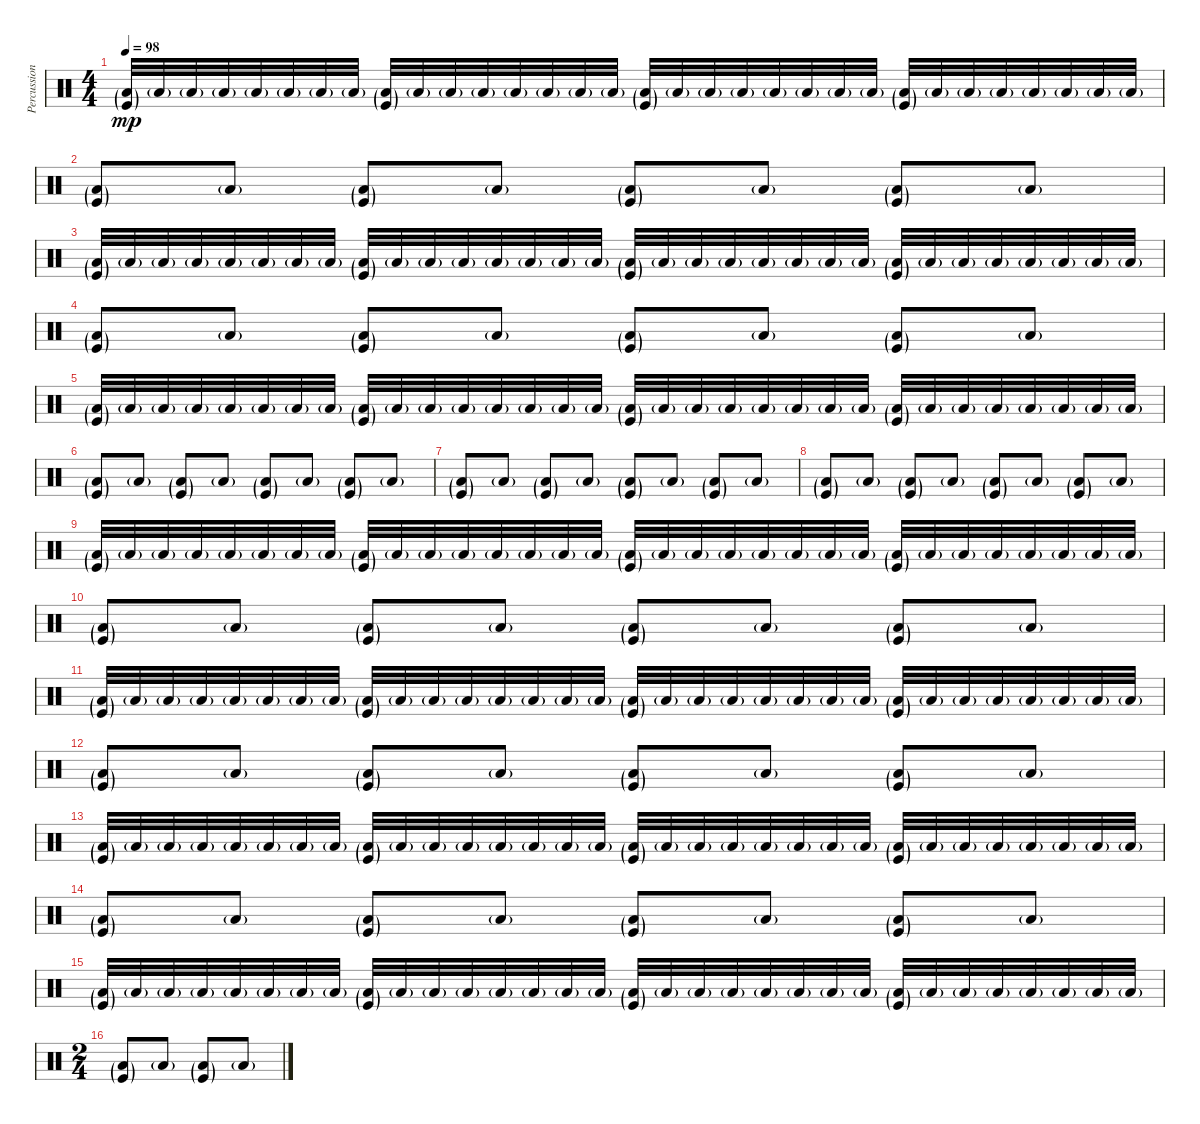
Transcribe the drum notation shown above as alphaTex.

\track ("Percussions" "Percussion") {instrument percussion}
\staff {score}
\articulation defaults
\ts (4 4)
\tempo 98
\clef neutral
\ks c
("Low Floor Tom (hit)"{g} "Kick (hit)"{g}).32{dy mp} "Low Floor Tom (hit)"{g}.32 "Low Floor Tom (hit)"{g}.32 "Low Floor Tom (hit)"{g}.32 "Low Floor Tom (hit)"{g}.32 "Low Floor Tom (hit)"{g}.32 "Low Floor Tom (hit)"{g}.32 "Low Floor Tom (hit)"{g}.32 ("Low Floor Tom (hit)"{g} "Kick (hit)"{g}).32 "Low Floor Tom (hit)"{g}.32 "Low Floor Tom (hit)"{g}.32 "Low Floor Tom (hit)"{g}.32 "Low Floor Tom (hit)"{g}.32 "Low Floor Tom (hit)"{g}.32 "Low Floor Tom (hit)"{g}.32 "Low Floor Tom (hit)"{g}.32 ("Low Floor Tom (hit)"{g} "Kick (hit)"{g}).32 "Low Floor Tom (hit)"{g}.32 "Low Floor Tom (hit)"{g}.32 "Low Floor Tom (hit)"{g}.32 "Low Floor Tom (hit)"{g}.32 "Low Floor Tom (hit)"{g}.32 "Low Floor Tom (hit)"{g}.32 "Low Floor Tom (hit)"{g}.32 ("Low Floor Tom (hit)"{g} "Kick (hit)"{g}).32 "Low Floor Tom (hit)"{g}.32 "Low Floor Tom (hit)"{g}.32 "Low Floor Tom (hit)"{g}.32 "Low Floor Tom (hit)"{g}.32 "Low Floor Tom (hit)"{g}.32 "Low Floor Tom (hit)"{g}.32 "Low Floor Tom (hit)"{g}.32 |
("Low Floor Tom (hit)"{g} "Kick (hit)"{g}).8 "Low Floor Tom (hit)"{g}.8 ("Low Floor Tom (hit)"{g} "Kick (hit)"{g}).8 "Low Floor Tom (hit)"{g}.8 ("Low Floor Tom (hit)"{g} "Kick (hit)"{g}).8 "Low Floor Tom (hit)"{g}.8 ("Low Floor Tom (hit)"{g} "Kick (hit)"{g}).8 "Low Floor Tom (hit)"{g}.8 |
("Low Floor Tom (hit)"{g} "Kick (hit)"{g}).32 "Low Floor Tom (hit)"{g}.32 "Low Floor Tom (hit)"{g}.32 "Low Floor Tom (hit)"{g}.32 "Low Floor Tom (hit)"{g}.32 "Low Floor Tom (hit)"{g}.32 "Low Floor Tom (hit)"{g}.32 "Low Floor Tom (hit)"{g}.32 ("Low Floor Tom (hit)"{g} "Kick (hit)"{g}).32 "Low Floor Tom (hit)"{g}.32 "Low Floor Tom (hit)"{g}.32 "Low Floor Tom (hit)"{g}.32 "Low Floor Tom (hit)"{g}.32 "Low Floor Tom (hit)"{g}.32 "Low Floor Tom (hit)"{g}.32 "Low Floor Tom (hit)"{g}.32 ("Low Floor Tom (hit)"{g} "Kick (hit)"{g}).32 "Low Floor Tom (hit)"{g}.32 "Low Floor Tom (hit)"{g}.32 "Low Floor Tom (hit)"{g}.32 "Low Floor Tom (hit)"{g}.32 "Low Floor Tom (hit)"{g}.32 "Low Floor Tom (hit)"{g}.32 "Low Floor Tom (hit)"{g}.32 ("Low Floor Tom (hit)"{g} "Kick (hit)"{g}).32 "Low Floor Tom (hit)"{g}.32 "Low Floor Tom (hit)"{g}.32 "Low Floor Tom (hit)"{g}.32 "Low Floor Tom (hit)"{g}.32 "Low Floor Tom (hit)"{g}.32 "Low Floor Tom (hit)"{g}.32 "Low Floor Tom (hit)"{g}.32 |
("Low Floor Tom (hit)"{g} "Kick (hit)"{g}).8 "Low Floor Tom (hit)"{g}.8 ("Low Floor Tom (hit)"{g} "Kick (hit)"{g}).8 "Low Floor Tom (hit)"{g}.8 ("Low Floor Tom (hit)"{g} "Kick (hit)"{g}).8 "Low Floor Tom (hit)"{g}.8 ("Low Floor Tom (hit)"{g} "Kick (hit)"{g}).8 "Low Floor Tom (hit)"{g}.8 |
("Low Floor Tom (hit)"{g} "Kick (hit)"{g}).32 "Low Floor Tom (hit)"{g}.32 "Low Floor Tom (hit)"{g}.32 "Low Floor Tom (hit)"{g}.32 "Low Floor Tom (hit)"{g}.32 "Low Floor Tom (hit)"{g}.32 "Low Floor Tom (hit)"{g}.32 "Low Floor Tom (hit)"{g}.32 ("Low Floor Tom (hit)"{g} "Kick (hit)"{g}).32 "Low Floor Tom (hit)"{g}.32 "Low Floor Tom (hit)"{g}.32 "Low Floor Tom (hit)"{g}.32 "Low Floor Tom (hit)"{g}.32 "Low Floor Tom (hit)"{g}.32 "Low Floor Tom (hit)"{g}.32 "Low Floor Tom (hit)"{g}.32 ("Low Floor Tom (hit)"{g} "Kick (hit)"{g}).32 "Low Floor Tom (hit)"{g}.32 "Low Floor Tom (hit)"{g}.32 "Low Floor Tom (hit)"{g}.32 "Low Floor Tom (hit)"{g}.32 "Low Floor Tom (hit)"{g}.32 "Low Floor Tom (hit)"{g}.32 "Low Floor Tom (hit)"{g}.32 ("Low Floor Tom (hit)"{g} "Kick (hit)"{g}).32 "Low Floor Tom (hit)"{g}.32 "Low Floor Tom (hit)"{g}.32 "Low Floor Tom (hit)"{g}.32 "Low Floor Tom (hit)"{g}.32 "Low Floor Tom (hit)"{g}.32 "Low Floor Tom (hit)"{g}.32 "Low Floor Tom (hit)"{g}.32 |
("Low Floor Tom (hit)"{g} "Kick (hit)"{g}).8 "Low Floor Tom (hit)"{g}.8 ("Low Floor Tom (hit)"{g} "Kick (hit)"{g}).8 "Low Floor Tom (hit)"{g}.8 ("Low Floor Tom (hit)"{g} "Kick (hit)"{g}).8 "Low Floor Tom (hit)"{g}.8 ("Low Floor Tom (hit)"{g} "Kick (hit)"{g}).8 "Low Floor Tom (hit)"{g}.8 |
("Low Floor Tom (hit)"{g} "Kick (hit)"{g}).8 "Low Floor Tom (hit)"{g}.8 ("Low Floor Tom (hit)"{g} "Kick (hit)"{g}).8 "Low Floor Tom (hit)"{g}.8 ("Low Floor Tom (hit)"{g} "Kick (hit)"{g}).8 "Low Floor Tom (hit)"{g}.8 ("Low Floor Tom (hit)"{g} "Kick (hit)"{g}).8 "Low Floor Tom (hit)"{g}.8 |
("Low Floor Tom (hit)"{g} "Kick (hit)"{g}).8 "Low Floor Tom (hit)"{g}.8 ("Low Floor Tom (hit)"{g} "Kick (hit)"{g}).8 "Low Floor Tom (hit)"{g}.8 ("Low Floor Tom (hit)"{g} "Kick (hit)"{g}).8 "Low Floor Tom (hit)"{g}.8 ("Low Floor Tom (hit)"{g} "Kick (hit)"{g}).8 "Low Floor Tom (hit)"{g}.8 |
("Low Floor Tom (hit)"{g} "Kick (hit)"{g}).32{volume 9} "Low Floor Tom (hit)"{g}.32 "Low Floor Tom (hit)"{g}.32 "Low Floor Tom (hit)"{g}.32 "Low Floor Tom (hit)"{g}.32 "Low Floor Tom (hit)"{g}.32 "Low Floor Tom (hit)"{g}.32 "Low Floor Tom (hit)"{g}.32 ("Low Floor Tom (hit)"{g} "Kick (hit)"{g}).32 "Low Floor Tom (hit)"{g}.32 "Low Floor Tom (hit)"{g}.32 "Low Floor Tom (hit)"{g}.32 "Low Floor Tom (hit)"{g}.32 "Low Floor Tom (hit)"{g}.32 "Low Floor Tom (hit)"{g}.32 "Low Floor Tom (hit)"{g}.32 ("Low Floor Tom (hit)"{g} "Kick (hit)"{g}).32 "Low Floor Tom (hit)"{g}.32 "Low Floor Tom (hit)"{g}.32 "Low Floor Tom (hit)"{g}.32 "Low Floor Tom (hit)"{g}.32 "Low Floor Tom (hit)"{g}.32 "Low Floor Tom (hit)"{g}.32 "Low Floor Tom (hit)"{g}.32 ("Low Floor Tom (hit)"{g} "Kick (hit)"{g}).32 "Low Floor Tom (hit)"{g}.32 "Low Floor Tom (hit)"{g}.32 "Low Floor Tom (hit)"{g}.32 "Low Floor Tom (hit)"{g}.32 "Low Floor Tom (hit)"{g}.32 "Low Floor Tom (hit)"{g}.32 "Low Floor Tom (hit)"{g}.32 |
("Low Floor Tom (hit)"{g} "Kick (hit)"{g}).8 "Low Floor Tom (hit)"{g}.8 ("Low Floor Tom (hit)"{g} "Kick (hit)"{g}).8 "Low Floor Tom (hit)"{g}.8 ("Low Floor Tom (hit)"{g} "Kick (hit)"{g}).8 "Low Floor Tom (hit)"{g}.8 ("Low Floor Tom (hit)"{g} "Kick (hit)"{g}).8 "Low Floor Tom (hit)"{g}.8 |
("Low Floor Tom (hit)"{g} "Kick (hit)"{g}).32 "Low Floor Tom (hit)"{g}.32 "Low Floor Tom (hit)"{g}.32 "Low Floor Tom (hit)"{g}.32 "Low Floor Tom (hit)"{g}.32 "Low Floor Tom (hit)"{g}.32 "Low Floor Tom (hit)"{g}.32 "Low Floor Tom (hit)"{g}.32 ("Low Floor Tom (hit)"{g} "Kick (hit)"{g}).32 "Low Floor Tom (hit)"{g}.32 "Low Floor Tom (hit)"{g}.32 "Low Floor Tom (hit)"{g}.32 "Low Floor Tom (hit)"{g}.32 "Low Floor Tom (hit)"{g}.32 "Low Floor Tom (hit)"{g}.32 "Low Floor Tom (hit)"{g}.32 ("Low Floor Tom (hit)"{g} "Kick (hit)"{g}).32 "Low Floor Tom (hit)"{g}.32 "Low Floor Tom (hit)"{g}.32 "Low Floor Tom (hit)"{g}.32 "Low Floor Tom (hit)"{g}.32 "Low Floor Tom (hit)"{g}.32 "Low Floor Tom (hit)"{g}.32 "Low Floor Tom (hit)"{g}.32 ("Low Floor Tom (hit)"{g} "Kick (hit)"{g}).32 "Low Floor Tom (hit)"{g}.32 "Low Floor Tom (hit)"{g}.32 "Low Floor Tom (hit)"{g}.32 "Low Floor Tom (hit)"{g}.32 "Low Floor Tom (hit)"{g}.32 "Low Floor Tom (hit)"{g}.32 "Low Floor Tom (hit)"{g}.32 |
("Low Floor Tom (hit)"{g} "Kick (hit)"{g}).8 "Low Floor Tom (hit)"{g}.8 ("Low Floor Tom (hit)"{g} "Kick (hit)"{g}).8 "Low Floor Tom (hit)"{g}.8 ("Low Floor Tom (hit)"{g} "Kick (hit)"{g}).8 "Low Floor Tom (hit)"{g}.8 ("Low Floor Tom (hit)"{g} "Kick (hit)"{g}).8 "Low Floor Tom (hit)"{g}.8 |
("Low Floor Tom (hit)"{g} "Kick (hit)"{g}).32 "Low Floor Tom (hit)"{g}.32 "Low Floor Tom (hit)"{g}.32 "Low Floor Tom (hit)"{g}.32 "Low Floor Tom (hit)"{g}.32 "Low Floor Tom (hit)"{g}.32 "Low Floor Tom (hit)"{g}.32 "Low Floor Tom (hit)"{g}.32 ("Low Floor Tom (hit)"{g} "Kick (hit)"{g}).32 "Low Floor Tom (hit)"{g}.32 "Low Floor Tom (hit)"{g}.32 "Low Floor Tom (hit)"{g}.32 "Low Floor Tom (hit)"{g}.32 "Low Floor Tom (hit)"{g}.32 "Low Floor Tom (hit)"{g}.32 "Low Floor Tom (hit)"{g}.32 ("Low Floor Tom (hit)"{g} "Kick (hit)"{g}).32 "Low Floor Tom (hit)"{g}.32 "Low Floor Tom (hit)"{g}.32 "Low Floor Tom (hit)"{g}.32 "Low Floor Tom (hit)"{g}.32 "Low Floor Tom (hit)"{g}.32 "Low Floor Tom (hit)"{g}.32 "Low Floor Tom (hit)"{g}.32 ("Low Floor Tom (hit)"{g} "Kick (hit)"{g}).32 "Low Floor Tom (hit)"{g}.32 "Low Floor Tom (hit)"{g}.32 "Low Floor Tom (hit)"{g}.32 "Low Floor Tom (hit)"{g}.32 "Low Floor Tom (hit)"{g}.32 "Low Floor Tom (hit)"{g}.32 "Low Floor Tom (hit)"{g}.32 |
("Low Floor Tom (hit)"{g} "Kick (hit)"{g}).8 "Low Floor Tom (hit)"{g}.8 ("Low Floor Tom (hit)"{g} "Kick (hit)"{g}).8 "Low Floor Tom (hit)"{g}.8 ("Low Floor Tom (hit)"{g} "Kick (hit)"{g}).8 "Low Floor Tom (hit)"{g}.8 ("Low Floor Tom (hit)"{g} "Kick (hit)"{g}).8 "Low Floor Tom (hit)"{g}.8 |
("Low Floor Tom (hit)"{g} "Kick (hit)"{g}).32 "Low Floor Tom (hit)"{g}.32 "Low Floor Tom (hit)"{g}.32 "Low Floor Tom (hit)"{g}.32 "Low Floor Tom (hit)"{g}.32 "Low Floor Tom (hit)"{g}.32 "Low Floor Tom (hit)"{g}.32 "Low Floor Tom (hit)"{g}.32 ("Low Floor Tom (hit)"{g} "Kick (hit)"{g}).32 "Low Floor Tom (hit)"{g}.32 "Low Floor Tom (hit)"{g}.32 "Low Floor Tom (hit)"{g}.32 "Low Floor Tom (hit)"{g}.32 "Low Floor Tom (hit)"{g}.32 "Low Floor Tom (hit)"{g}.32 "Low Floor Tom (hit)"{g}.32 ("Low Floor Tom (hit)"{g} "Kick (hit)"{g}).32 "Low Floor Tom (hit)"{g}.32 "Low Floor Tom (hit)"{g}.32 "Low Floor Tom (hit)"{g}.32 "Low Floor Tom (hit)"{g}.32 "Low Floor Tom (hit)"{g}.32 "Low Floor Tom (hit)"{g}.32 "Low Floor Tom (hit)"{g}.32 ("Low Floor Tom (hit)"{g} "Kick (hit)"{g}).32 "Low Floor Tom (hit)"{g}.32 "Low Floor Tom (hit)"{g}.32 "Low Floor Tom (hit)"{g}.32 "Low Floor Tom (hit)"{g}.32 "Low Floor Tom (hit)"{g}.32 "Low Floor Tom (hit)"{g}.32 "Low Floor Tom (hit)"{g}.32 |
\ts (2 4)
("Low Floor Tom (hit)"{g} "Kick (hit)"{g}).8 "Low Floor Tom (hit)"{g}.8 ("Low Floor Tom (hit)"{g} "Kick (hit)"{g}).8 "Low Floor Tom (hit)"{g}.8
